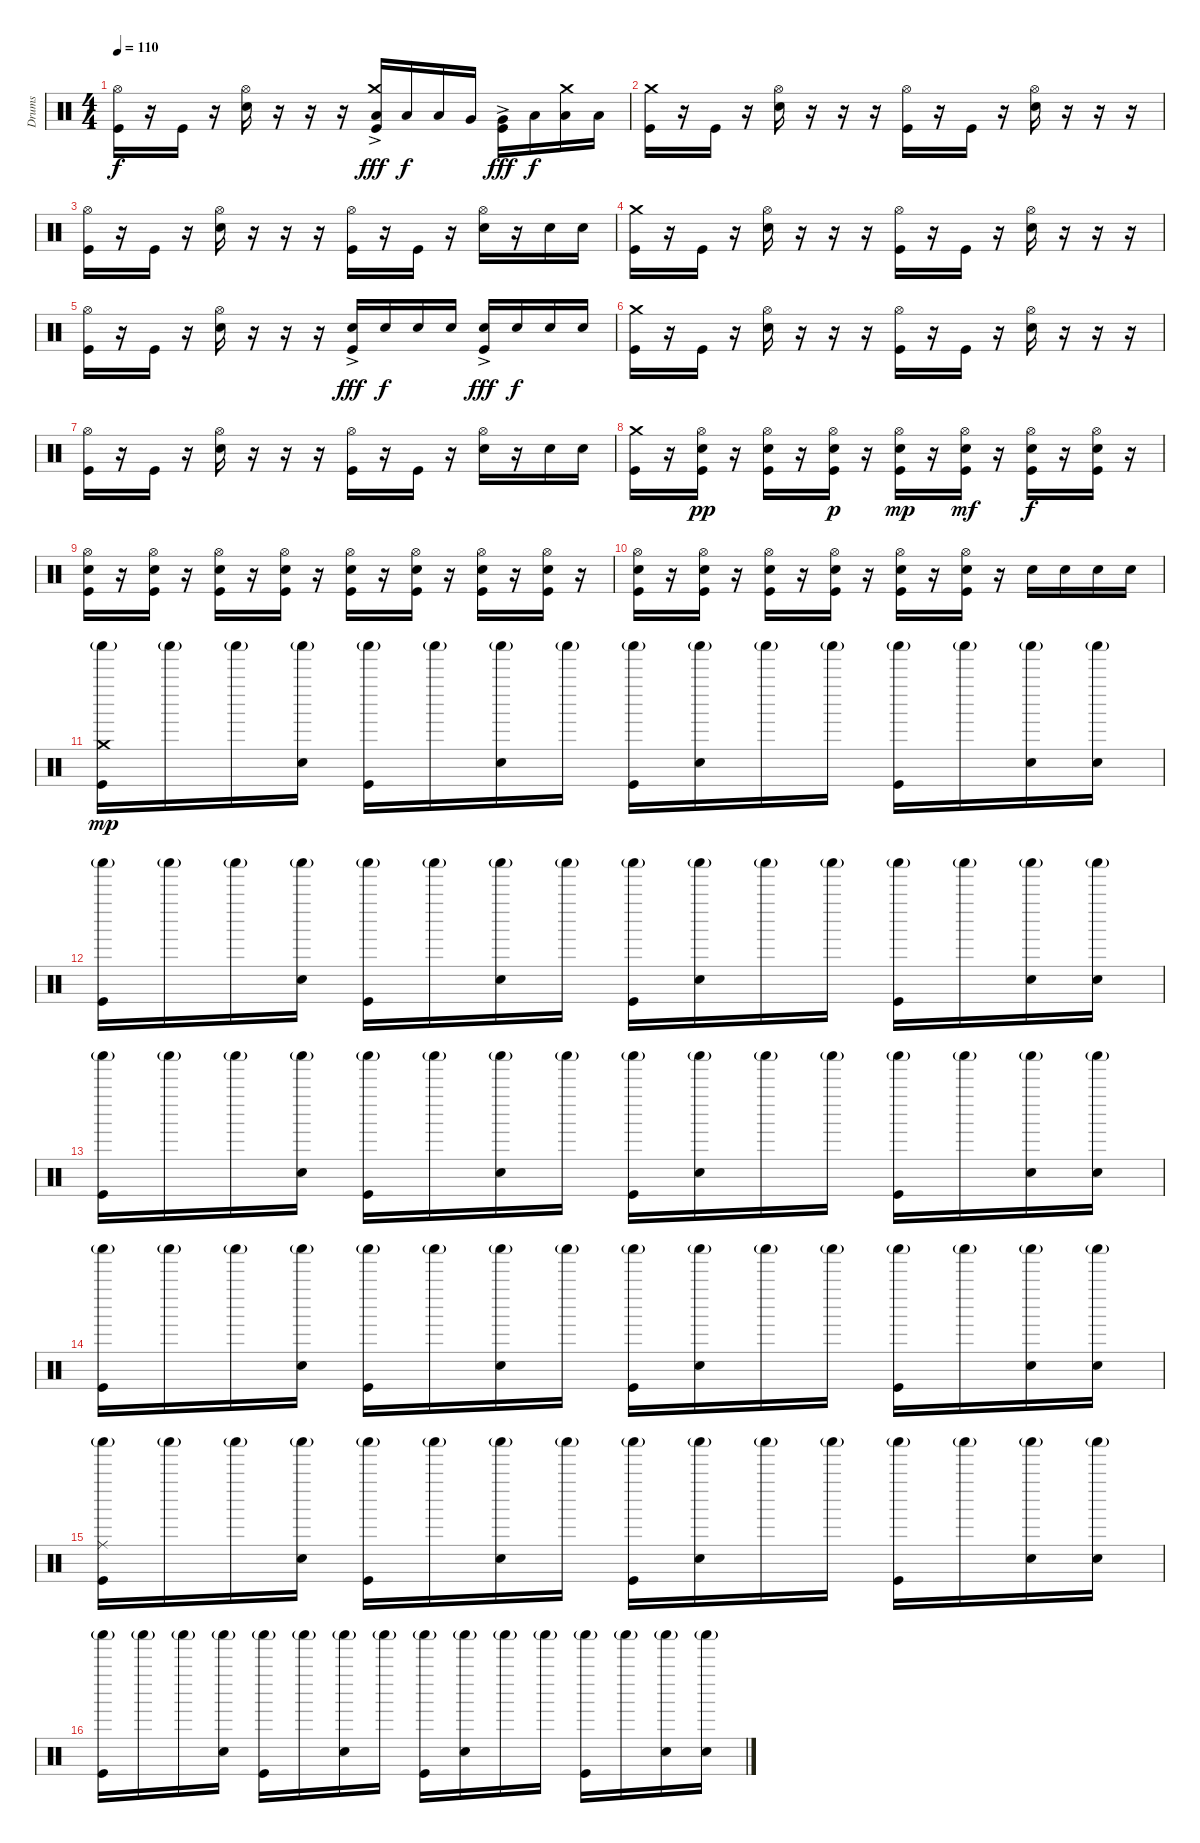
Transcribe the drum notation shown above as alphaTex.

\track ("Drums" "Drums") {instrument percussion}
\staff {score}
\articulation defaults
\ts (4 4)
\tempo 110
\clef neutral
\ks c
("Hi-Hat (open)" "Kick (hit)").16{dy f} r.16 "Kick (hit)".16 r.16 ("Hi-Hat (open)" "Snare (hit) 2").16 r.16 r.16 r.16 ("Crash medium (hit)" "Low Tom (hit)" "Kick (hit)"{ac}).16{dy fff} "Low Tom (hit)".16{dy f} "Low Tom (hit)".16 "Very Low Tom (hit)".16 ("Very Low Tom (hit)" "Kick (hit)"{ac}).16{dy fff} "Low Floor Tom (hit)".16{dy f} ("Crash medium (hit)" "Low Floor Tom (hit)").16 "Low Floor Tom (hit)".16 |
("Crash medium (hit)" "Kick (hit)").16 r.16 "Kick (hit)".16 r.16 ("Hi-Hat (open)" "Snare (hit) 2").16 r.16 r.16 r.16 ("Hi-Hat (open)" "Kick (hit)").16 r.16 "Kick (hit)".16 r.16 ("Hi-Hat (open)" "Snare (hit) 2").16 r.16 r.16 r.16 |
("Hi-Hat (open)" "Kick (hit)").16 r.16 "Kick (hit)".16 r.16 ("Hi-Hat (open)" "Snare (hit) 2").16 r.16 r.16 r.16 ("Hi-Hat (open)" "Kick (hit)").16 r.16 "Kick (hit)".16 r.16 ("Hi-Hat (open)" "Snare (hit) 2").16 r.16 "Snare (hit) 2".16 "Snare (hit) 2".16 |
("Crash medium (hit)" "Kick (hit)").16 r.16 "Kick (hit)".16 r.16 ("Hi-Hat (open)" "Snare (hit) 2").16 r.16 r.16 r.16 ("Hi-Hat (open)" "Kick (hit)").16 r.16 "Kick (hit)".16 r.16 ("Hi-Hat (open)" "Snare (hit) 2").16 r.16 r.16 r.16 |
("Hi-Hat (open)" "Kick (hit)").16 r.16 "Kick (hit)".16 r.16 ("Hi-Hat (open)" "Snare (hit) 2").16 r.16 r.16 r.16 ("Snare (hit) 2" "Kick (hit)"{ac}).16{dy fff} "Snare (hit) 2".16{dy f} "Snare (hit) 2".16 "Snare (hit) 2".16 ("Snare (hit) 2" "Kick (hit)"{ac}).16{dy fff} "Snare (hit) 2".16{dy f} "Snare (hit) 2".16 "Snare (hit) 2".16 |
("Crash medium (hit)" "Kick (hit)").16 r.16 "Kick (hit)".16 r.16 ("Hi-Hat (open)" "Snare (hit) 2").16 r.16 r.16 r.16 ("Hi-Hat (open)" "Kick (hit)").16 r.16 "Kick (hit)".16 r.16 ("Hi-Hat (open)" "Snare (hit) 2").16 r.16 r.16 r.16 |
("Hi-Hat (open)" "Kick (hit)").16 r.16 "Kick (hit)".16 r.16 ("Hi-Hat (open)" "Snare (hit) 2").16 r.16 r.16 r.16 ("Hi-Hat (open)" "Kick (hit)").16 r.16 "Kick (hit)".16 r.16 ("Hi-Hat (open)" "Snare (hit) 2").16 r.16 "Snare (hit) 2".16 "Snare (hit) 2".16 |
("Crash medium (hit)" "Kick (hit)").16 r.16 ("Hi-Hat (open)" "Snare (hit) 2" "Kick (hit)").16{dy pp} r.16 ("Hi-Hat (open)" "Snare (hit) 2" "Kick (hit)").16 r.16 ("Hi-Hat (open)" "Snare (hit) 2" "Kick (hit)").16{dy p} r.16 ("Hi-Hat (open)" "Snare (hit) 2" "Kick (hit)").16{dy mp} r.16 ("Hi-Hat (open)" "Snare (hit) 2" "Kick (hit)").16{dy mf} r.16 ("Hi-Hat (open)" "Snare (hit) 2" "Kick (hit)").16{dy f} r.16 ("Hi-Hat (open)" "Snare (hit) 2" "Kick (hit)").16 r.16 |
("Hi-Hat (open)" "Snare (hit) 2" "Kick (hit)").16 r.16 ("Hi-Hat (open)" "Snare (hit) 2" "Kick (hit)").16 r.16 ("Hi-Hat (open)" "Snare (hit) 2" "Kick (hit)").16 r.16 ("Hi-Hat (open)" "Snare (hit) 2" "Kick (hit)").16 r.16 ("Hi-Hat (open)" "Snare (hit) 2" "Kick (hit)").16 r.16 ("Hi-Hat (open)" "Snare (hit) 2" "Kick (hit)").16 r.16 ("Hi-Hat (open)" "Snare (hit) 2" "Kick (hit)").16 r.16 ("Hi-Hat (open)" "Snare (hit) 2" "Kick (hit)").16 r.16 |
("Hi-Hat (open)" "Snare (hit) 2" "Kick (hit)").16 r.16 ("Hi-Hat (open)" "Snare (hit) 2" "Kick (hit)").16 r.16 ("Hi-Hat (open)" "Snare (hit) 2" "Kick (hit)").16 r.16 ("Hi-Hat (open)" "Snare (hit) 2" "Kick (hit)").16 r.16 ("Hi-Hat (open)" "Snare (hit) 2" "Kick (hit)").16 r.16 ("Hi-Hat (open)" "Snare (hit) 2" "Kick (hit)").16 r.16 "Snare (hit) 2".16 "Snare (hit) 2".16 "Snare (hit) 2".16 "Snare (hit) 2".16 |
("Shaker (hit)"{g} "Crash medium (hit)" "Kick (hit)").16{dy mp} "Shaker (hit)"{g}.16 "Shaker (hit)"{g}.16 ("Shaker (hit)"{g} "Snare (hit) 2").16 ("Shaker (hit)"{g} "Kick (hit)").16 "Shaker (hit)"{g}.16 ("Shaker (hit)"{g} "Snare (hit) 2").16 "Shaker (hit)"{g}.16 ("Shaker (hit)"{g} "Kick (hit)").16 ("Shaker (hit)"{g} "Snare (hit) 2").16 "Shaker (hit)"{g}.16 "Shaker (hit)"{g}.16 ("Shaker (hit)"{g} "Kick (hit)").16 "Shaker (hit)"{g}.16 ("Shaker (hit)"{g} "Snare (hit) 2").16 ("Shaker (hit)"{g} "Snare (hit) 2").16 |
("Shaker (hit)"{g} "Kick (hit)").16 "Shaker (hit)"{g}.16 "Shaker (hit)"{g}.16 ("Shaker (hit)"{g} "Snare (hit) 2").16 ("Shaker (hit)"{g} "Kick (hit)").16 "Shaker (hit)"{g}.16 ("Shaker (hit)"{g} "Snare (hit) 2").16 "Shaker (hit)"{g}.16 ("Shaker (hit)"{g} "Kick (hit)").16 ("Shaker (hit)"{g} "Snare (hit) 2").16 "Shaker (hit)"{g}.16 "Shaker (hit)"{g}.16 ("Shaker (hit)"{g} "Kick (hit)").16 "Shaker (hit)"{g}.16 ("Shaker (hit)"{g} "Snare (hit) 2").16 ("Shaker (hit)"{g} "Snare (hit) 2").16 |
("Shaker (hit)"{g} "Kick (hit)").16 "Shaker (hit)"{g}.16 "Shaker (hit)"{g}.16 ("Shaker (hit)"{g} "Snare (hit) 2").16 ("Shaker (hit)"{g} "Kick (hit)").16 "Shaker (hit)"{g}.16 ("Shaker (hit)"{g} "Snare (hit) 2").16 "Shaker (hit)"{g}.16 ("Shaker (hit)"{g} "Kick (hit)").16 ("Shaker (hit)"{g} "Snare (hit) 2").16 "Shaker (hit)"{g}.16 "Shaker (hit)"{g}.16 ("Shaker (hit)"{g} "Kick (hit)").16 "Shaker (hit)"{g}.16 ("Shaker (hit)"{g} "Snare (hit) 2").16 ("Shaker (hit)"{g} "Snare (hit) 2").16 |
("Shaker (hit)"{g} "Kick (hit)").16 "Shaker (hit)"{g}.16 "Shaker (hit)"{g}.16 ("Shaker (hit)"{g} "Snare (hit) 2").16 ("Shaker (hit)"{g} "Kick (hit)").16 "Shaker (hit)"{g}.16 ("Shaker (hit)"{g} "Snare (hit) 2").16 "Shaker (hit)"{g}.16 ("Shaker (hit)"{g} "Kick (hit)").16 ("Shaker (hit)"{g} "Snare (hit) 2").16 "Shaker (hit)"{g}.16 "Shaker (hit)"{g}.16 ("Shaker (hit)"{g} "Kick (hit)").16 "Shaker (hit)"{g}.16 ("Shaker (hit)"{g} "Snare (hit) 2").16 ("Shaker (hit)"{g} "Snare (hit) 2").16 |
("Shaker (hit)"{g} "Ride (middle)" "Kick (hit)").16 "Shaker (hit)"{g}.16 "Shaker (hit)"{g}.16 ("Shaker (hit)"{g} "Snare (hit) 2").16 ("Shaker (hit)"{g} "Kick (hit)").16 "Shaker (hit)"{g}.16 ("Shaker (hit)"{g} "Snare (hit) 2").16 "Shaker (hit)"{g}.16 ("Shaker (hit)"{g} "Kick (hit)").16 ("Shaker (hit)"{g} "Snare (hit) 2").16 "Shaker (hit)"{g}.16 "Shaker (hit)"{g}.16 ("Shaker (hit)"{g} "Kick (hit)").16 "Shaker (hit)"{g}.16 ("Shaker (hit)"{g} "Snare (hit) 2").16 ("Shaker (hit)"{g} "Snare (hit) 2").16 |
("Shaker (hit)"{g} "Kick (hit)").16 "Shaker (hit)"{g}.16 "Shaker (hit)"{g}.16 ("Shaker (hit)"{g} "Snare (hit) 2").16 ("Shaker (hit)"{g} "Kick (hit)").16 "Shaker (hit)"{g}.16 ("Shaker (hit)"{g} "Snare (hit) 2").16 "Shaker (hit)"{g}.16 ("Shaker (hit)"{g} "Kick (hit)").16 ("Shaker (hit)"{g} "Snare (hit) 2").16 "Shaker (hit)"{g}.16 "Shaker (hit)"{g}.16 ("Shaker (hit)"{g} "Kick (hit)").16 "Shaker (hit)"{g}.16 ("Shaker (hit)"{g} "Snare (hit) 2").16 ("Shaker (hit)"{g} "Snare (hit) 2").16
